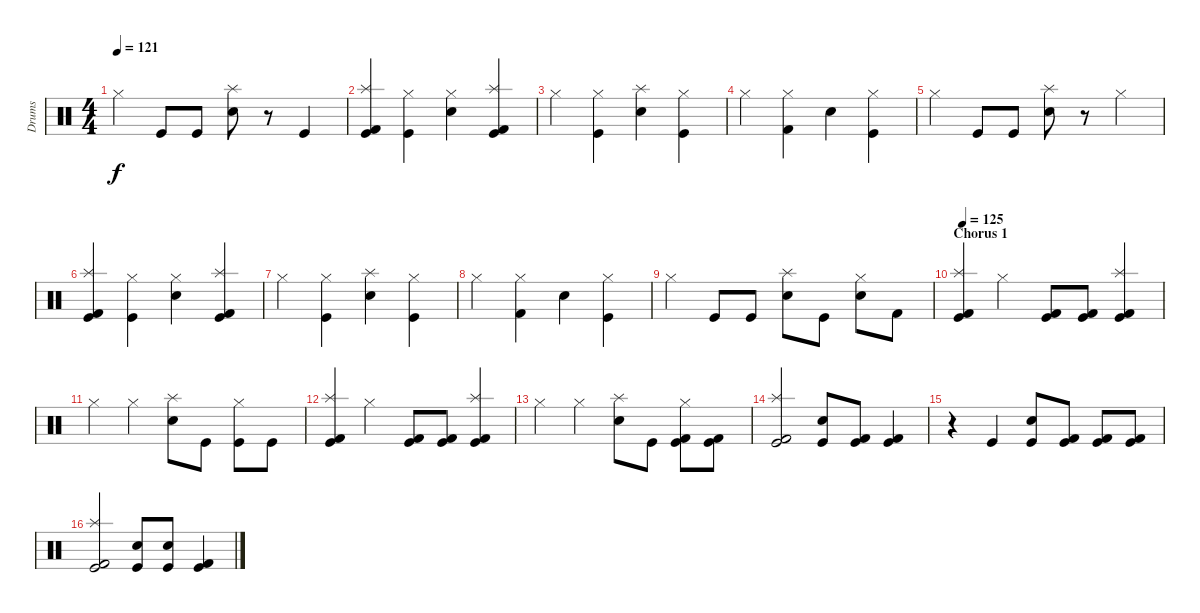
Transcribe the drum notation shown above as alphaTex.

\track ("Drums" "Drums") {instrument percussion}
\staff {score}
\articulation defaults
\ts (4 4)
\tempo 121
\clef neutral
\ks c "Hi-Hat (closed)".4{dy f} "Kick (hit)".8 "Kick (hit)".8
("Electric Snare (hit)" "Splash (hit)").8 r.8 "Kick (hit)".4 |
("Kick (hit) 2" "Kick (hit)" "Splash (hit)").4 ("Kick (hit)" "Hi-Hat (closed)").4 ("Electric Snare (hit)" "Hi-Hat (closed)").4 ("Kick (hit) 2" "Kick (hit)" "Splash (hit)").4 |
"Hi-Hat (closed)".4 ("Kick (hit)" "Hi-Hat (closed)").4 ("Electric Snare (hit)" "Splash (hit)").4 ("Kick (hit)" "Hi-Hat (closed)").4 |
"Hi-Hat (closed)".4 ("Kick (hit) 2" "Hi-Hat (closed)").4 "Electric Snare (hit)".4 ("Kick (hit)" "Hi-Hat (closed)").4 |
"Hi-Hat (closed)".4 "Kick (hit)".8 "Kick (hit)".8 ("Electric Snare (hit)" "Splash (hit)").8 r.8 "Hi-Hat (closed)".4 |
("Kick (hit) 2" "Kick (hit)" "Splash (hit)").4 ("Kick (hit)" "Hi-Hat (closed)").4 ("Electric Snare (hit)" "Hi-Hat (closed)").4 ("Kick (hit) 2" "Kick (hit)" "Splash (hit)").4 |
"Hi-Hat (closed)".4 ("Kick (hit)" "Hi-Hat (closed)").4 ("Electric Snare (hit)" "Splash (hit)").4 ("Kick (hit)" "Hi-Hat (closed)").4 |
"Hi-Hat (closed)".4 ("Kick (hit) 2" "Hi-Hat (closed)").4 "Electric Snare (hit)".4 ("Kick (hit)" "Hi-Hat (closed)").4 |
"Hi-Hat (closed)".4 "Kick (hit)".8 "Kick (hit)".8 ("Electric Snare (hit)" "Splash (hit)").8 "Kick (hit)".8 ("Electric Snare (hit)" "Hi-Hat (closed)").8 "Kick (hit) 2".8 |
\section ("" "Chorus 1")
\tempo 125
("Kick (hit) 2" "Kick (hit)" "Splash (hit)").4 "Hi-Hat (closed)".4 ("Kick (hit) 2" "Kick (hit)").8 ("Kick (hit) 2" "Kick (hit)").8 ("Kick (hit) 2" "Kick (hit)" "Splash (hit)").4 |
"Hi-Hat (closed)".4 "Hi-Hat (closed)".4 ("Electric Snare (hit)" "Splash (hit)").8 "Kick (hit)".8 ("Kick (hit)" "Hi-Hat (closed)").8 "Kick (hit)".8 |
("Kick (hit) 2" "Kick (hit)" "Splash (hit)").4 "Hi-Hat (closed)".4 ("Kick (hit) 2" "Kick (hit)").8 ("Kick (hit) 2" "Kick (hit)").8 ("Kick (hit) 2" "Kick (hit)" "Splash (hit)").4 |
"Hi-Hat (closed)".4 "Hi-Hat (closed)".4 ("Electric Snare (hit)" "Splash (hit)").8 "Kick (hit)".8 ("Kick (hit) 2" "Hi-Hat (closed)" "Kick (hit)").8 ("Kick (hit) 2" "Kick (hit)").8 |
("Kick (hit) 2" "Kick (hit)" "Splash (hit)").2 ("Electric Snare (hit)" "Kick (hit)").8 ("Kick (hit) 2" "Kick (hit)").8 ("Kick (hit) 2" "Kick (hit)").4 |
r.4 "Kick (hit)".4 ("Electric Snare (hit)" "Kick (hit)").8 ("Kick (hit) 2" "Kick (hit)").8 ("Kick (hit) 2" "Kick (hit)").8 ("Kick (hit) 2" "Kick (hit)").8 |
("Kick (hit) 2" "Kick (hit)" "Splash (hit)").2 ("Electric Snare (hit)" "Kick (hit)").8 ("Electric Snare (hit)" "Kick (hit)").8 ("Kick (hit) 2" "Kick (hit)").4
